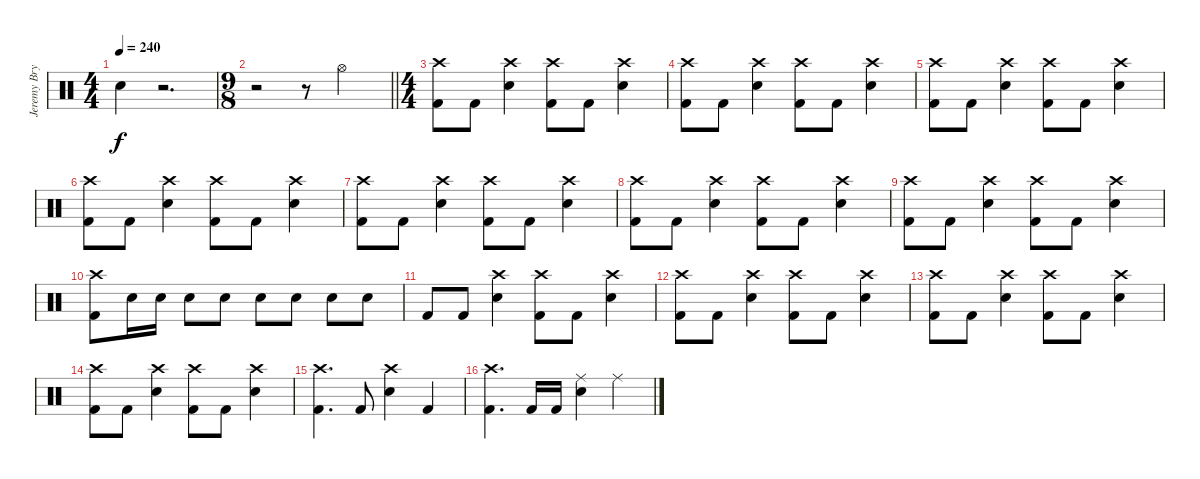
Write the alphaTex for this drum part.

\track ("Jeremy Bryan - Drums" "Jeremy Bry") {instrument percussion}
\staff {score}
\articulation defaults
\ts (4 4)
\tempo 240
\clef neutral
\ks c "Electric Snare (hit)".4{dy f}
r.2{d} |
\ts (9 8)
\barLineRight lightlight
r.2 r.8 "Hi-Hat (open)".2 |
\ts (4 4)
("Crash high (hit)" "Kick (hit) 2").8 "Kick (hit) 2".8 ("Crash high (hit)" "Electric Snare (hit)").4 ("Crash high (hit)" "Kick (hit) 2").8 "Kick (hit) 2".8 ("Crash high (hit)" "Electric Snare (hit)").4 |
("Crash high (hit)" "Kick (hit) 2").8 "Kick (hit) 2".8 ("Crash high (hit)" "Electric Snare (hit)").4 ("Crash high (hit)" "Kick (hit) 2").8 "Kick (hit) 2".8 ("Crash high (hit)" "Electric Snare (hit)").4 |
("Crash high (hit)" "Kick (hit) 2").8 "Kick (hit) 2".8 ("Crash high (hit)" "Electric Snare (hit)").4 ("Crash high (hit)" "Kick (hit) 2").8 "Kick (hit) 2".8 ("Crash high (hit)" "Electric Snare (hit)").4 |
("Crash high (hit)" "Kick (hit) 2").8 "Kick (hit) 2".8 ("Crash high (hit)" "Electric Snare (hit)").4 ("Crash high (hit)" "Kick (hit) 2").8 "Kick (hit) 2".8 ("Crash high (hit)" "Electric Snare (hit)").4 |
("Crash high (hit)" "Kick (hit) 2").8 "Kick (hit) 2".8 ("Crash high (hit)" "Electric Snare (hit)").4 ("Crash high (hit)" "Kick (hit) 2").8 "Kick (hit) 2".8 ("Crash high (hit)" "Electric Snare (hit)").4 |
("Crash high (hit)" "Kick (hit) 2").8 "Kick (hit) 2".8 ("Crash high (hit)" "Electric Snare (hit)").4 ("Crash high (hit)" "Kick (hit) 2").8 "Kick (hit) 2".8 ("Crash high (hit)" "Electric Snare (hit)").4 |
("Crash high (hit)" "Kick (hit) 2").8 "Kick (hit) 2".8 ("Crash high (hit)" "Electric Snare (hit)").4 ("Crash high (hit)" "Kick (hit) 2").8 "Kick (hit) 2".8 ("Crash high (hit)" "Electric Snare (hit)").4 |
("Crash high (hit)" "Kick (hit) 2").8 "Electric Snare (hit)".16 "Electric Snare (hit)".16 "Electric Snare (hit)".8 "Electric Snare (hit)".8 "Electric Snare (hit)".8 "Electric Snare (hit)".8 "Electric Snare (hit)".8 "Electric Snare (hit)".8 |
"Kick (hit) 2".8 "Kick (hit) 2".8 ("Crash high (hit)" "Electric Snare (hit)").4 ("Crash high (hit)" "Kick (hit) 2").8 "Kick (hit) 2".8 ("Crash high (hit)" "Electric Snare (hit)").4 |
("Crash high (hit)" "Kick (hit) 2").8 "Kick (hit) 2".8 ("Crash high (hit)" "Electric Snare (hit)").4 ("Crash high (hit)" "Kick (hit) 2").8 "Kick (hit) 2".8 ("Crash high (hit)" "Electric Snare (hit)").4 |
("Crash high (hit)" "Kick (hit) 2").8 "Kick (hit) 2".8 ("Crash high (hit)" "Electric Snare (hit)").4 ("Crash high (hit)" "Kick (hit) 2").8 "Kick (hit) 2".8 ("Crash high (hit)" "Electric Snare (hit)").4 |
("Crash high (hit)" "Kick (hit) 2").8 "Kick (hit) 2".8 ("Crash high (hit)" "Electric Snare (hit)").4 ("Crash high (hit)" "Kick (hit) 2").8 "Kick (hit) 2".8 ("Crash high (hit)" "Electric Snare (hit)").4 |
("Crash high (hit)" "Kick (hit) 2").4{d} "Kick (hit) 2".8 ("Crash high (hit)" "Electric Snare (hit)").4 "Kick (hit) 2".4 |
("Crash high (hit)" "Kick (hit) 2").4{d} "Kick (hit) 2".16 "Kick (hit) 2".16 ("Ride (middle)" "Electric Snare (hit)").4 "Ride (middle)".4
